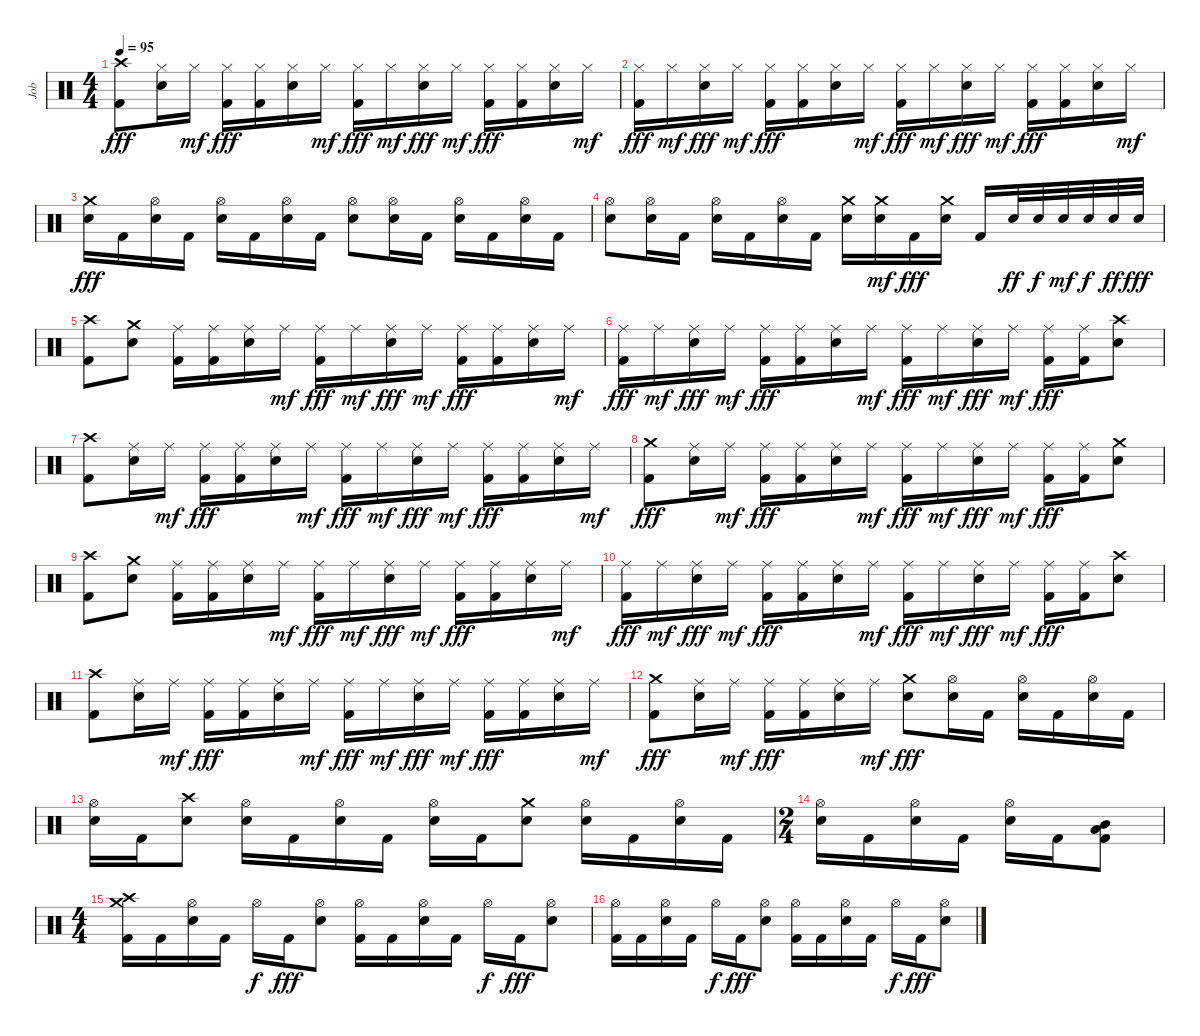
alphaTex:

\track ("Job" "Job") {instrument percussion}
\staff {score}
\articulation defaults
\ts (4 4)
\tempo 95
\clef neutral
\ks c
("Crash high (hit)" "Kick (hit) 2").8{dy fff} ("Hi-Hat (closed)" "Electric Snare (hit)").16 "Hi-Hat (closed)".16{dy mf} ("Hi-Hat (closed)" "Kick (hit) 2").16{dy fff} ("Hi-Hat (closed)" "Kick (hit) 2").16 ("Hi-Hat (closed)" "Electric Snare (hit)").16 "Hi-Hat (closed)".16{dy mf} ("Hi-Hat (closed)" "Kick (hit) 2").16{dy fff} "Hi-Hat (closed)".16{dy mf} ("Hi-Hat (closed)" "Electric Snare (hit)").16{dy fff} "Hi-Hat (closed)".16{dy mf} ("Hi-Hat (closed)" "Kick (hit) 2").16{dy fff} ("Hi-Hat (closed)" "Kick (hit) 2").16 ("Hi-Hat (closed)" "Electric Snare (hit)").16 "Hi-Hat (closed)".16{dy mf} |
("Hi-Hat (closed)" "Kick (hit) 2").16{dy fff} "Hi-Hat (closed)".16{dy mf} ("Hi-Hat (closed)" "Electric Snare (hit)").16{dy fff} "Hi-Hat (closed)".16{dy mf} ("Hi-Hat (closed)" "Kick (hit) 2").16{dy fff} ("Hi-Hat (closed)" "Kick (hit) 2").16 ("Hi-Hat (closed)" "Electric Snare (hit)").16 "Hi-Hat (closed)".16{dy mf} ("Hi-Hat (closed)" "Kick (hit) 2").16{dy fff} "Hi-Hat (closed)".16{dy mf} ("Hi-Hat (closed)" "Electric Snare (hit)").16{dy fff} "Hi-Hat (closed)".16{dy mf} ("Hi-Hat (closed)" "Kick (hit) 2").16{dy fff} ("Hi-Hat (closed)" "Kick (hit) 2").16 ("Hi-Hat (closed)" "Electric Snare (hit)").16 "Hi-Hat (closed)".16{dy mf} |
("Crash medium (hit)" "Electric Snare (hit)").16{dy fff} "Kick (hit) 2".16 ("Hi-Hat (open)" "Electric Snare (hit)").16 "Kick (hit) 2".16 ("Hi-Hat (open)" "Electric Snare (hit)").16 "Kick (hit) 2".16 ("Hi-Hat (open)" "Electric Snare (hit)").16 "Kick (hit) 2".16 ("Hi-Hat (open)" "Electric Snare (hit)").8 ("Hi-Hat (open)" "Electric Snare (hit)").16 "Kick (hit) 2".16 ("Hi-Hat (open)" "Electric Snare (hit)").16 "Kick (hit) 2".16 ("Hi-Hat (open)" "Electric Snare (hit)").16 "Kick (hit) 2".16 |
("Hi-Hat (open)" "Electric Snare (hit)").8 ("Hi-Hat (open)" "Electric Snare (hit)").16 "Kick (hit) 2".16 ("Hi-Hat (open)" "Electric Snare (hit)").16 "Kick (hit) 2".16 ("Hi-Hat (open)" "Electric Snare (hit)").16 "Kick (hit) 2".16 ("Crash medium (hit)" "Electric Snare (hit)").16 ("Crash medium (hit)" "Electric Snare (hit)").16{dy mf} "Kick (hit) 2".16{dy fff} ("Crash medium (hit)" "Electric Snare (hit)").16 "Kick (hit) 2".16 "Electric Snare (hit)".32{dy ff} "Electric Snare (hit)".32{dy f} "Electric Snare (hit)".32{dy mf} "Electric Snare (hit)".32{dy f} "Electric Snare (hit)".32{dy ff} "Electric Snare (hit)".32{dy fff} |
("Crash high (hit)" "Kick (hit) 2").8 ("Crash medium (hit)" "Electric Snare (hit)").8 ("Ride (middle)" "Kick (hit) 2").16 ("Ride (middle)" "Kick (hit) 2").16 ("Ride (middle)" "Electric Snare (hit)").16 "Ride (middle)".16{dy mf} ("Ride (middle)" "Kick (hit) 2").16{dy fff} "Ride (middle)".16{dy mf} ("Ride (middle)" "Electric Snare (hit)").16{dy fff} "Ride (middle)".16{dy mf} ("Ride (middle)" "Kick (hit) 2").16{dy fff} ("Ride (middle)" "Kick (hit) 2").16 ("Ride (middle)" "Electric Snare (hit)").16 "Ride (middle)".16{dy mf} |
("Ride (middle)" "Kick (hit) 2").16{dy fff} "Ride (middle)".16{dy mf} ("Ride (middle)" "Electric Snare (hit)").16{dy fff} "Ride (middle)".16{dy mf} ("Ride (middle)" "Kick (hit) 2").16{dy fff} ("Ride (middle)" "Kick (hit) 2").16 ("Ride (middle)" "Electric Snare (hit)").16 "Ride (middle)".16{dy mf} ("Ride (middle)" "Kick (hit) 2").16{dy fff} "Ride (middle)".16{dy mf} ("Ride (middle)" "Electric Snare (hit)").16{dy fff} "Ride (middle)".16{dy mf} ("Ride (middle)" "Kick (hit) 2").16{dy fff} ("Ride (middle)" "Kick (hit) 2").16 ("Crash high (hit)" "Electric Snare (hit)").8 |
("Crash high (hit)" "Kick (hit) 2").8 ("Ride (middle)" "Electric Snare (hit)").16 "Ride (middle)".16{dy mf} ("Ride (middle)" "Kick (hit) 2").16{dy fff} ("Ride (middle)" "Kick (hit) 2").16 ("Ride (middle)" "Electric Snare (hit)").16 "Ride (middle)".16{dy mf} ("Ride (middle)" "Kick (hit) 2").16{dy fff} "Ride (middle)".16{dy mf} ("Ride (middle)" "Electric Snare (hit)").16{dy fff} "Ride (middle)".16{dy mf} ("Ride (middle)" "Kick (hit) 2").16{dy fff} ("Ride (middle)" "Kick (hit) 2").16 ("Ride (middle)" "Electric Snare (hit)").16 "Ride (middle)".16{dy mf} |
("Crash medium (hit)" "Kick (hit) 2").8{dy fff} ("Ride (middle)" "Electric Snare (hit)").16 "Ride (middle)".16{dy mf} ("Ride (middle)" "Kick (hit) 2").16{dy fff} ("Ride (middle)" "Kick (hit) 2").16 ("Ride (middle)" "Electric Snare (hit)").16 "Ride (middle)".16{dy mf} ("Ride (middle)" "Kick (hit) 2").16{dy fff} "Ride (middle)".16{dy mf} ("Ride (middle)" "Electric Snare (hit)").16{dy fff} "Ride (middle)".16{dy mf} ("Ride (middle)" "Kick (hit) 2").16{dy fff} ("Ride (middle)" "Kick (hit) 2").16 ("Crash medium (hit)" "Electric Snare (hit)").8 |
("Crash high (hit)" "Kick (hit) 2").8 ("Crash medium (hit)" "Electric Snare (hit)").8 ("Ride (middle)" "Kick (hit) 2").16 ("Ride (middle)" "Kick (hit) 2").16 ("Ride (middle)" "Electric Snare (hit)").16 "Ride (middle)".16{dy mf} ("Ride (middle)" "Kick (hit) 2").16{dy fff} "Ride (middle)".16{dy mf} ("Ride (middle)" "Electric Snare (hit)").16{dy fff} "Ride (middle)".16{dy mf} ("Ride (middle)" "Kick (hit) 2").16{dy fff} ("Ride (middle)" "Kick (hit) 2").16 ("Ride (middle)" "Electric Snare (hit)").16 "Ride (middle)".16{dy mf} |
("Ride (middle)" "Kick (hit) 2").16{dy fff} "Ride (middle)".16{dy mf} ("Ride (middle)" "Electric Snare (hit)").16{dy fff} "Ride (middle)".16{dy mf} ("Ride (middle)" "Kick (hit) 2").16{dy fff} ("Ride (middle)" "Kick (hit) 2").16 ("Ride (middle)" "Electric Snare (hit)").16 "Ride (middle)".16{dy mf} ("Ride (middle)" "Kick (hit) 2").16{dy fff} "Ride (middle)".16{dy mf} ("Ride (middle)" "Electric Snare (hit)").16{dy fff} "Ride (middle)".16{dy mf} ("Ride (middle)" "Kick (hit) 2").16{dy fff} ("Ride (middle)" "Kick (hit) 2").16 ("Crash high (hit)" "Electric Snare (hit)").8 |
("Crash high (hit)" "Kick (hit) 2").8 ("Ride (middle)" "Electric Snare (hit)").16 "Ride (middle)".16{dy mf} ("Ride (middle)" "Kick (hit) 2").16{dy fff} ("Ride (middle)" "Kick (hit) 2").16 ("Ride (middle)" "Electric Snare (hit)").16 "Ride (middle)".16{dy mf} ("Ride (middle)" "Kick (hit) 2").16{dy fff} "Ride (middle)".16{dy mf} ("Ride (middle)" "Electric Snare (hit)").16{dy fff} "Ride (middle)".16{dy mf} ("Ride (middle)" "Kick (hit) 2").16{dy fff} ("Ride (middle)" "Kick (hit) 2").16 ("Ride (middle)" "Electric Snare (hit)").16 "Ride (middle)".16{dy mf} |
("Crash medium (hit)" "Kick (hit) 2").8{dy fff} ("Ride (middle)" "Electric Snare (hit)").16 "Ride (middle)".16{dy mf} ("Ride (middle)" "Kick (hit) 2").16{dy fff} ("Ride (middle)" "Kick (hit) 2").16 ("Ride (middle)" "Electric Snare (hit)").16 "Ride (middle)".16{dy mf} ("Crash medium (hit)" "Electric Snare (hit)").8{dy fff} ("Hi-Hat (open)" "Electric Snare (hit)").16 "Kick (hit) 2".16 ("Hi-Hat (open)" "Electric Snare (hit)").16 "Kick (hit) 2".16 ("Hi-Hat (open)" "Electric Snare (hit)").16 "Kick (hit) 2".16 |
("Hi-Hat (open)" "Electric Snare (hit)").16 "Kick (hit) 2".16 ("Crash high (hit)" "Electric Snare (hit)").8 ("Hi-Hat (open)" "Electric Snare (hit)").16 "Kick (hit) 2".16 ("Hi-Hat (open)" "Electric Snare (hit)").16 "Kick (hit) 2".16 ("Hi-Hat (open)" "Electric Snare (hit)").16 "Kick (hit) 2".16 ("Crash medium (hit)" "Electric Snare (hit)").8 ("Hi-Hat (open)" "Electric Snare (hit)").16 "Kick (hit) 2".16 ("Hi-Hat (open)" "Electric Snare (hit)").16 "Kick (hit) 2".16 |
\ts (2 4)
("Hi-Hat (open)" "Electric Snare (hit)").16 "Kick (hit) 2".16 ("Hi-Hat (open)" "Electric Snare (hit)").16 "Kick (hit) 2".16 ("Hi-Hat (open)" "Electric Snare (hit)").16 "Kick (hit) 2".16 ("Mid Tom (hit)" "Low Tom (hit)" "Kick (hit) 2").8 |
\ts (4 4)
("Crash medium (hit)" "Crash high (hit)" "Kick (hit) 2").16 "Kick (hit) 2".16 ("Hi-Hat (open)" "Electric Snare (hit)").16 "Kick (hit) 2".16 "Hi-Hat (open)".16{dy f} "Kick (hit) 2".16{dy fff} ("Hi-Hat (open)" "Electric Snare (hit)").8 ("Hi-Hat (open)" "Kick (hit) 2").16 "Kick (hit) 2".16 ("Hi-Hat (open)" "Electric Snare (hit)").16 "Kick (hit) 2".16 "Hi-Hat (open)".16{dy f} "Kick (hit) 2".16{dy fff} ("Hi-Hat (open)" "Electric Snare (hit)").8 |
("Hi-Hat (open)" "Kick (hit) 2").16 "Kick (hit) 2".16 ("Hi-Hat (open)" "Electric Snare (hit)").16 "Kick (hit) 2".16 "Hi-Hat (open)".16{dy f} "Kick (hit) 2".16{dy fff} ("Hi-Hat (open)" "Electric Snare (hit)").8 ("Hi-Hat (open)" "Kick (hit) 2").16 "Kick (hit) 2".16 ("Hi-Hat (open)" "Electric Snare (hit)").16 "Kick (hit) 2".16 "Hi-Hat (open)".16{dy f} "Kick (hit) 2".16{dy fff} ("Hi-Hat (open)" "Electric Snare (hit)").8
